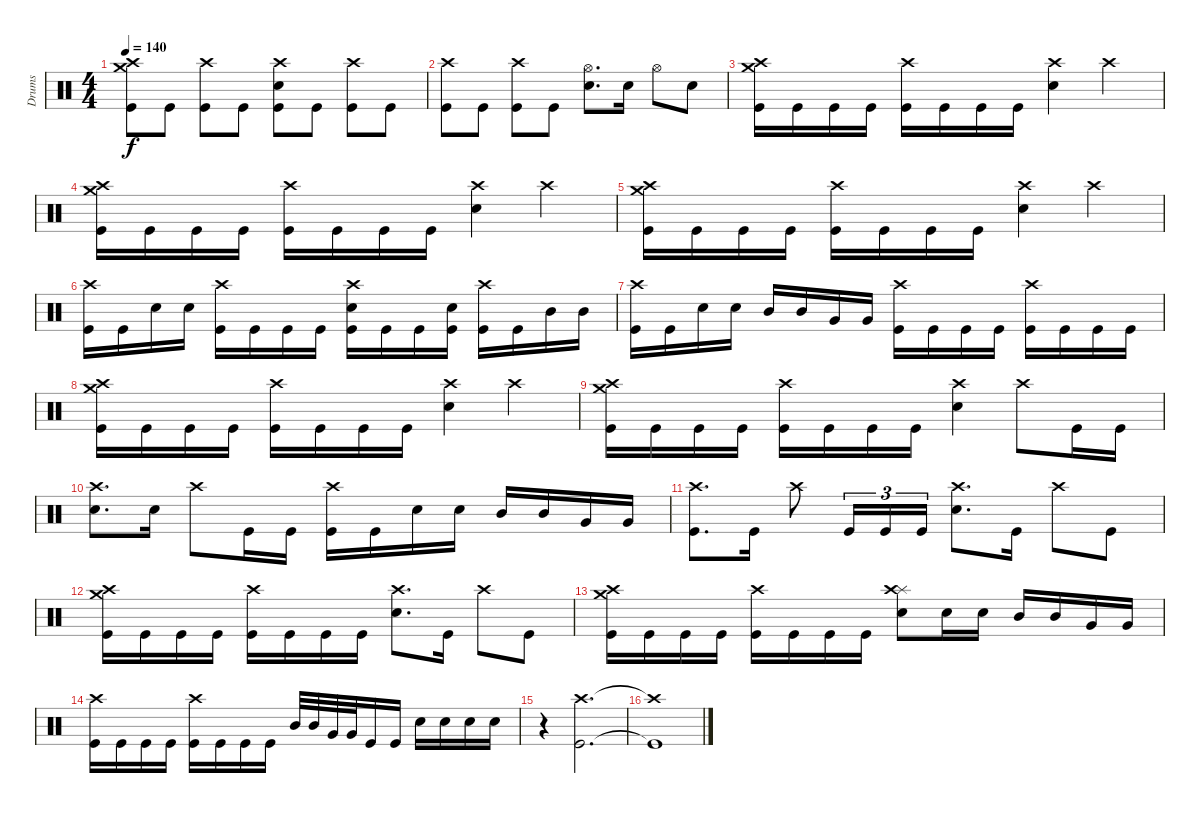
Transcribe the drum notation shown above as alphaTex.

\track ("Drums" "Drums") {instrument percussion}
\staff {score}
\articulation defaults
\ts (4 4)
\tempo 140
\clef neutral
\ks c
("Crash high (hit)" "Crash medium (hit)" "Kick (hit)").8{dy f} "Kick (hit)".8 ("Crash high (hit)" "Kick (hit)").8 "Kick (hit)".8 ("Crash high (hit)" "Electric Snare (hit)" "Kick (hit)").8 "Kick (hit)".8 ("Crash high (hit)" "Kick (hit)").8 "Kick (hit)".8 |
("Crash high (hit)" "Kick (hit)").8 "Kick (hit)".8 ("Crash high (hit)" "Kick (hit)").8 "Kick (hit)".8 ("Hi-Hat (open)" "Electric Snare (hit)").8{d} "Electric Snare (hit)".16 "Hi-Hat (open)".8 "Electric Snare (hit)".8 |
("Crash high (hit)" "Crash medium (hit)" "Kick (hit)").16 "Kick (hit)".16 "Kick (hit)".16 "Kick (hit)".16 ("Crash high (hit)" "Kick (hit)").16 "Kick (hit)".16 "Kick (hit)".16 "Kick (hit)".16 ("Crash high (hit)" "Electric Snare (hit)").4 "Crash high (hit)".4 |
("Crash high (hit)" "Crash medium (hit)" "Kick (hit)").16 "Kick (hit)".16 "Kick (hit)".16 "Kick (hit)".16 ("Crash high (hit)" "Kick (hit)").16 "Kick (hit)".16 "Kick (hit)".16 "Kick (hit)".16 ("Crash high (hit)" "Electric Snare (hit)").4 "Crash high (hit)".4 |
("Crash high (hit)" "Crash medium (hit)" "Kick (hit)").16 "Kick (hit)".16 "Kick (hit)".16 "Kick (hit)".16 ("Crash high (hit)" "Kick (hit)").16 "Kick (hit)".16 "Kick (hit)".16 "Kick (hit)".16 ("Crash high (hit)" "Electric Snare (hit)").4 "Crash high (hit)".4 |
("Crash high (hit)" "Kick (hit)").16 "Kick (hit)".16 "Electric Snare (hit)".16 "Electric Snare (hit)".16 ("Crash high (hit)" "Kick (hit)").16 "Kick (hit)".16 "Kick (hit)".16 "Kick (hit)".16 ("Crash high (hit)" "Electric Snare (hit)" "Kick (hit)").16 "Kick (hit)".16 "Kick (hit)".16 ("Electric Snare (hit)" "Kick (hit)").16 ("Crash high (hit)" "Kick (hit)").16 "Kick (hit)".16 "Mid Tom (hit)".16 "Mid Tom (hit)".16 |
("Crash high (hit)" "Kick (hit)").16 "Kick (hit)".16 "Electric Snare (hit)".16 "Electric Snare (hit)".16 "Mid Tom (hit)".16 "Mid Tom (hit)".16 "Very Low Tom (hit)".16 "Very Low Tom (hit)".16 ("Crash high (hit)" "Kick (hit)").16 "Kick (hit)".16 "Kick (hit)".16 "Kick (hit)".16 ("Crash high (hit)" "Kick (hit)").16 "Kick (hit)".16 "Kick (hit)".16 "Kick (hit)".16 |
("Crash high (hit)" "Crash medium (hit)" "Kick (hit)").16 "Kick (hit)".16 "Kick (hit)".16 "Kick (hit)".16 ("Crash high (hit)" "Kick (hit)").16 "Kick (hit)".16 "Kick (hit)".16 "Kick (hit)".16 ("Crash high (hit)" "Electric Snare (hit)").4 "Crash high (hit)".4 |
("Crash high (hit)" "Crash medium (hit)" "Kick (hit)").16 "Kick (hit)".16 "Kick (hit)".16 "Kick (hit)".16 ("Crash high (hit)" "Kick (hit)").16 "Kick (hit)".16 "Kick (hit)".16 "Kick (hit)".16 ("Crash high (hit)" "Electric Snare (hit)").4 "Crash high (hit)".8 "Kick (hit)".16 "Kick (hit)".16 |
("Crash high (hit)" "Electric Snare (hit)").8{d} "Electric Snare (hit)".16 "Crash high (hit)".8 "Kick (hit)".16 "Kick (hit)".16 ("Crash high (hit)" "Kick (hit)").16 "Kick (hit)".16 "Electric Snare (hit)".16 "Electric Snare (hit)".16 "Mid Tom (hit)".16 "Mid Tom (hit)".16 "Very Low Tom (hit)".16 "Very Low Tom (hit)".16 |
("Crash high (hit)" "Kick (hit)").8{d} "Kick (hit)".16 "Crash high (hit)".8 "Kick (hit)".16{tu (3 2)} "Kick (hit)".16{tu (3 2)} "Kick (hit)".16{tu (3 2)} ("Crash high (hit)" "Electric Snare (hit)").8{d} "Kick (hit)".16 "Crash high (hit)".8 "Kick (hit)".8 |
("Crash high (hit)" "Crash medium (hit)" "Kick (hit)").16 "Kick (hit)".16 "Kick (hit)".16 "Kick (hit)".16 ("Crash high (hit)" "Kick (hit)").16 "Kick (hit)".16 "Kick (hit)".16 "Kick (hit)".16 ("Crash high (hit)" "Electric Snare (hit)").8{d} "Kick (hit)".16 "Crash high (hit)".8 "Kick (hit)".8 |
("Crash high (hit)" "Crash medium (hit)" "Kick (hit)").16 "Kick (hit)".16 "Kick (hit)".16 "Kick (hit)".16 ("Crash high (hit)" "Kick (hit)").16 "Kick (hit)".16 "Kick (hit)".16 "Kick (hit)".16 ("Splash (hit)" "Electric Snare (hit)" "Crash high (hit)").8 "Electric Snare (hit)".16 "Electric Snare (hit)".16 "Mid Tom (hit)".16 "Mid Tom (hit)".16 "Very Low Tom (hit)".16 "Very Low Tom (hit)".16 |
("Crash high (hit)" "Kick (hit)").16 "Kick (hit)".16 "Kick (hit)".16 "Kick (hit)".16 ("Crash high (hit)" "Kick (hit)").16 "Kick (hit)".16 "Kick (hit)".16 "Kick (hit)".16 "Mid Tom (hit)".32 "Mid Tom (hit)".32 "Very Low Tom (hit)".32 "Very Low Tom (hit)".32 "Kick (hit)".16 "Kick (hit)".16 "Electric Snare (hit)".16 "Electric Snare (hit)".16 "Electric Snare (hit)".16 "Electric Snare (hit)".16 |
r.4 ("Kick (hit)" "Crash high (hit)").2{d} |
("Kick (hit)"{t} "Crash high (hit)"{t}).1
